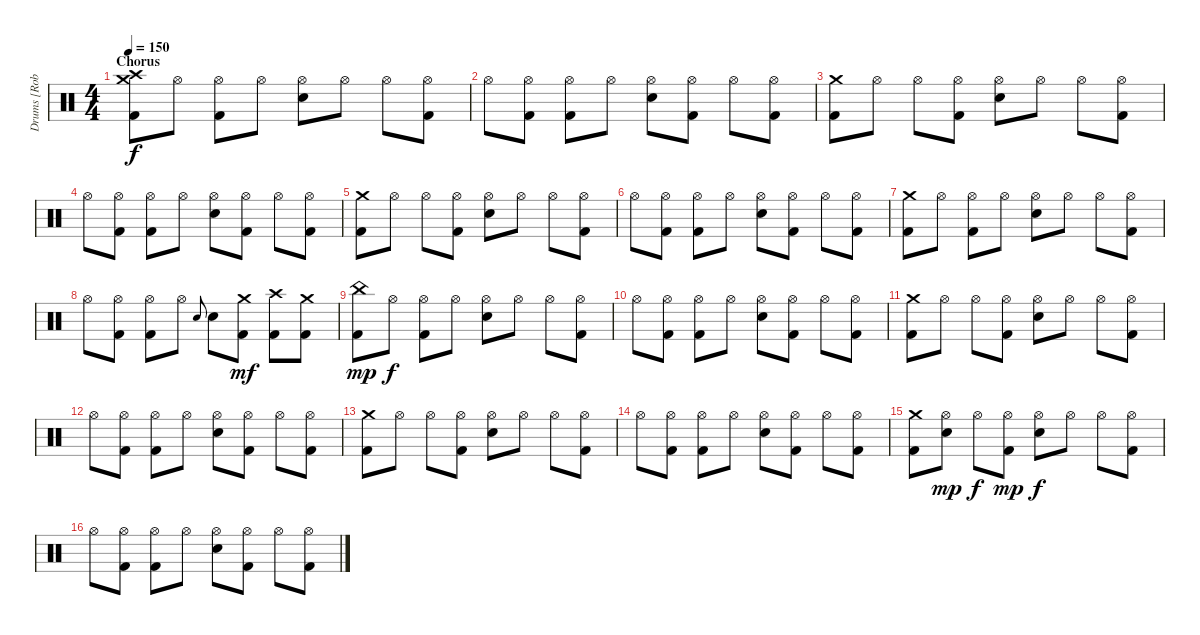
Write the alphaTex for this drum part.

\track ("Drums [Rob Bourdon]" "Drums [Rob") {instrument percussion}
\staff {score}
\articulation defaults
\ts (4 4)
\section ("" "Chorus")
\tempo 150
\clef neutral
\ks c
("Crash medium (hit)" "Crash high (hit)" "Kick (hit) 2").8{dy f} "Hi-Hat (open)".8 ("Hi-Hat (open)" "Kick (hit) 2").8 "Hi-Hat (open)".8 ("Hi-Hat (open)" "Snare (hit) 2").8 "Hi-Hat (open)".8 "Hi-Hat (open)".8 ("Hi-Hat (open)" "Kick (hit) 2").8 |
"Hi-Hat (open)".8 ("Hi-Hat (open)" "Kick (hit) 2").8 ("Hi-Hat (open)" "Kick (hit) 2").8 "Hi-Hat (open)".8 ("Hi-Hat (open)" "Snare (hit) 2").8 ("Hi-Hat (open)" "Kick (hit) 2").8 "Hi-Hat (open)".8 ("Hi-Hat (open)" "Kick (hit) 2").8 |
("Crash medium (hit)" "Kick (hit) 2").8 "Hi-Hat (open)".8 "Hi-Hat (open)".8 ("Hi-Hat (open)" "Kick (hit) 2").8 ("Hi-Hat (open)" "Snare (hit) 2").8 "Hi-Hat (open)".8 "Hi-Hat (open)".8 ("Hi-Hat (open)" "Kick (hit) 2").8 |
"Hi-Hat (open)".8 ("Hi-Hat (open)" "Kick (hit) 2").8 ("Hi-Hat (open)" "Kick (hit) 2").8 "Hi-Hat (open)".8 ("Hi-Hat (open)" "Snare (hit) 2").8 ("Hi-Hat (open)" "Kick (hit) 2").8 "Hi-Hat (open)".8 ("Hi-Hat (open)" "Kick (hit) 2").8 |
("Crash medium (hit)" "Kick (hit) 2").8 "Hi-Hat (open)".8 "Hi-Hat (open)".8 ("Hi-Hat (open)" "Kick (hit) 2").8 ("Hi-Hat (open)" "Snare (hit) 2").8 "Hi-Hat (open)".8 "Hi-Hat (open)".8 ("Hi-Hat (open)" "Kick (hit) 2").8 |
"Hi-Hat (open)".8 ("Hi-Hat (open)" "Kick (hit) 2").8 ("Hi-Hat (open)" "Kick (hit) 2").8 "Hi-Hat (open)".8 ("Hi-Hat (open)" "Snare (hit) 2").8 ("Hi-Hat (open)" "Kick (hit) 2").8 "Hi-Hat (open)".8 ("Hi-Hat (open)" "Kick (hit) 2").8 |
("Crash medium (hit)" "Kick (hit) 2").8 "Hi-Hat (open)".8 ("Hi-Hat (open)" "Kick (hit) 2").8 "Hi-Hat (open)".8 ("Hi-Hat (open)" "Snare (hit) 2").8 "Hi-Hat (open)".8 "Hi-Hat (open)".8 ("Hi-Hat (open)" "Kick (hit) 2").8 |
"Hi-Hat (open)".8 ("Hi-Hat (open)" "Kick (hit) 2").8 ("Hi-Hat (open)" "Kick (hit) 2").8 "Hi-Hat (open)".8 "Snare (hit) 2".8{gr onbeat} "Snare (hit) 2".8 ("Crash medium (hit)" "Kick (hit) 2").8{dy mf} ("Crash high (hit)" "Kick (hit) 2").8 ("Crash medium (hit)" "Kick (hit) 2").8 |
("China (hit)" "Kick (hit) 2").8{dy mp} "Hi-Hat (open)".8{dy f} ("Hi-Hat (open)" "Kick (hit) 2").8 "Hi-Hat (open)".8 ("Hi-Hat (open)" "Snare (hit) 2").8 "Hi-Hat (open)".8 "Hi-Hat (open)".8 ("Hi-Hat (open)" "Kick (hit) 2").8 |
"Hi-Hat (open)".8 ("Hi-Hat (open)" "Kick (hit) 2").8 ("Hi-Hat (open)" "Kick (hit) 2").8 "Hi-Hat (open)".8 ("Hi-Hat (open)" "Snare (hit) 2").8 ("Hi-Hat (open)" "Kick (hit) 2").8 "Hi-Hat (open)".8 ("Hi-Hat (open)" "Kick (hit) 2").8 |
("Crash medium (hit)" "Kick (hit) 2").8 "Hi-Hat (open)".8 "Hi-Hat (open)".8 ("Hi-Hat (open)" "Kick (hit) 2").8 ("Hi-Hat (open)" "Snare (hit) 2").8 "Hi-Hat (open)".8 "Hi-Hat (open)".8 ("Hi-Hat (open)" "Kick (hit) 2").8 |
"Hi-Hat (open)".8 ("Hi-Hat (open)" "Kick (hit) 2").8 ("Hi-Hat (open)" "Kick (hit) 2").8 "Hi-Hat (open)".8 ("Hi-Hat (open)" "Snare (hit) 2").8 ("Hi-Hat (open)" "Kick (hit) 2").8 "Hi-Hat (open)".8 ("Hi-Hat (open)" "Kick (hit) 2").8 |
("Crash medium (hit)" "Kick (hit) 2").8 "Hi-Hat (open)".8 "Hi-Hat (open)".8 ("Hi-Hat (open)" "Kick (hit) 2").8 ("Hi-Hat (open)" "Snare (hit) 2").8 "Hi-Hat (open)".8 "Hi-Hat (open)".8 ("Hi-Hat (open)" "Kick (hit) 2").8 |
"Hi-Hat (open)".8 ("Hi-Hat (open)" "Kick (hit) 2").8 ("Hi-Hat (open)" "Kick (hit) 2").8 "Hi-Hat (open)".8 ("Hi-Hat (open)" "Snare (hit) 2").8 ("Hi-Hat (open)" "Kick (hit) 2").8 "Hi-Hat (open)".8 ("Hi-Hat (open)" "Kick (hit) 2").8 |
("Crash medium (hit)" "Kick (hit) 2").8 ("Hi-Hat (open)" "Snare (hit) 2").8{dy mp} "Hi-Hat (open)".8{dy f} ("Hi-Hat (open)" "Kick (hit) 2").8{dy mp} ("Hi-Hat (open)" "Snare (hit) 2").8{dy f} "Hi-Hat (open)".8 "Hi-Hat (open)".8 ("Hi-Hat (open)" "Kick (hit) 2").8 |
"Hi-Hat (open)".8 ("Hi-Hat (open)" "Kick (hit) 2").8 ("Hi-Hat (open)" "Kick (hit) 2").8 "Hi-Hat (open)".8 ("Hi-Hat (open)" "Snare (hit) 2").8 ("Hi-Hat (open)" "Kick (hit) 2").8 "Hi-Hat (open)".8 ("Hi-Hat (open)" "Kick (hit) 2").8
